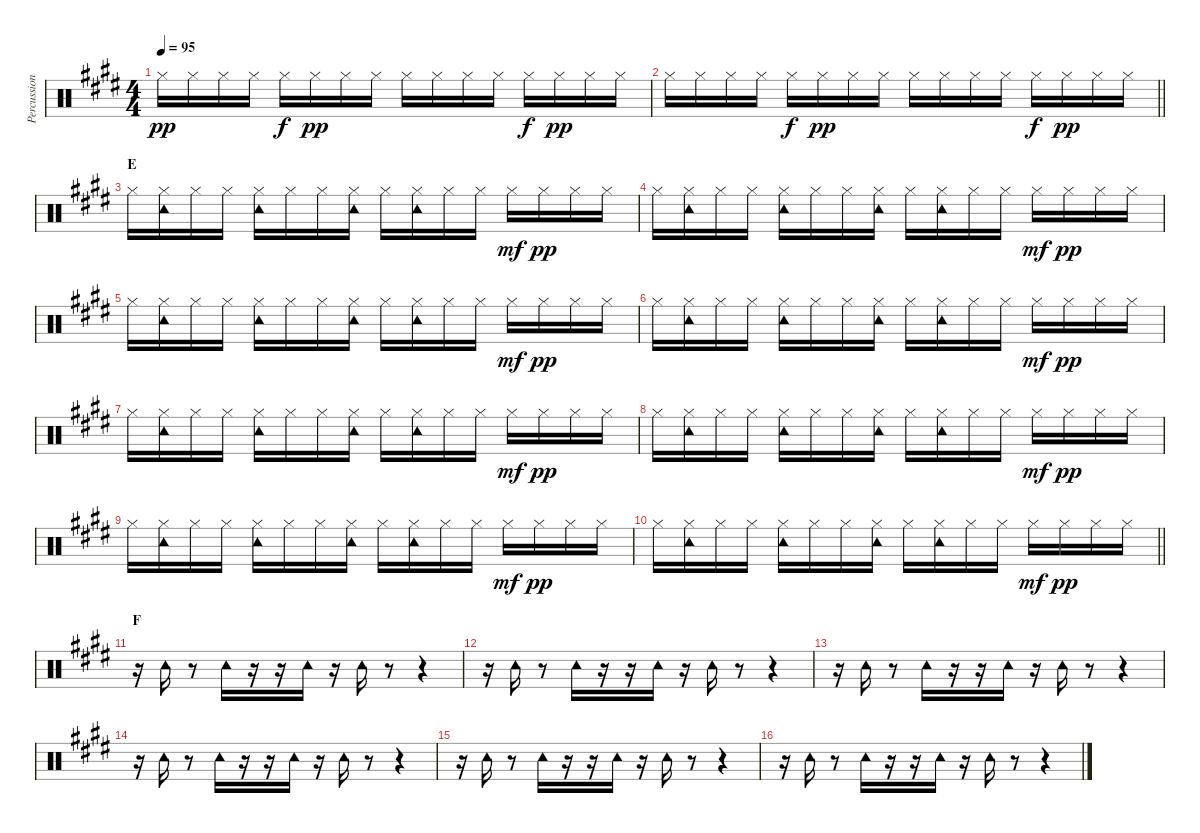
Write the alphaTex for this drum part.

\track ("Percussion" "Percussion") {instrument percussion}
\staff {score}
\articulation defaults
\ts (4 4)
\tempo 95
\clef neutral
\ks e "Hi-Hat (closed)".16{dy pp} "Hi-Hat (closed)".16 "Hi-Hat (closed)".16 "Hi-Hat (closed)".16 "Hi-Hat (closed)".16{dy f} "Hi-Hat (closed)".16{dy pp} "Hi-Hat (closed)".16 "Hi-Hat (closed)".16 "Hi-Hat (closed)".16 "Hi-Hat (closed)".16 "Hi-Hat (closed)".16 "Hi-Hat (closed)".16 "Hi-Hat (closed)".16{dy f} "Hi-Hat (closed)".16{dy pp} "Hi-Hat (closed)".16 "Hi-Hat (closed)".16
|
\barLineRight lightlight "Hi-Hat (closed)".16 "Hi-Hat (closed)".16 "Hi-Hat (closed)".16 "Hi-Hat (closed)".16 "Hi-Hat (closed)".16{dy f} "Hi-Hat (closed)".16{dy pp} "Hi-Hat (closed)".16 "Hi-Hat (closed)".16 "Hi-Hat (closed)".16 "Hi-Hat (closed)".16 "Hi-Hat (closed)".16 "Hi-Hat (closed)".16 "Hi-Hat (closed)".16{dy f} "Hi-Hat (closed)".16{dy pp} "Hi-Hat (closed)".16 "Hi-Hat (closed)".16
|
\section ("" "E")
"Hi-Hat (closed)".16 ("Hi-Hat (closed)" "Tambourine (hit)").16 "Hi-Hat (closed)".16 "Hi-Hat (closed)".16 ("Hi-Hat (closed)" "Tambourine (hit)").16 "Hi-Hat (closed)".16 "Hi-Hat (closed)".16 ("Hi-Hat (closed)" "Tambourine (hit)").16 "Hi-Hat (closed)".16 ("Hi-Hat (closed)" "Tambourine (hit)").16 "Hi-Hat (closed)".16 "Hi-Hat (closed)".16 "Hi-Hat (closed)".16{dy mf} "Hi-Hat (closed)".16{dy pp} "Hi-Hat (closed)".16 "Hi-Hat (closed)".16 |
"Hi-Hat (closed)".16 ("Hi-Hat (closed)" "Tambourine (hit)").16 "Hi-Hat (closed)".16 "Hi-Hat (closed)".16 ("Hi-Hat (closed)" "Tambourine (hit)").16 "Hi-Hat (closed)".16 "Hi-Hat (closed)".16 ("Hi-Hat (closed)" "Tambourine (hit)").16 "Hi-Hat (closed)".16 ("Hi-Hat (closed)" "Tambourine (hit)").16 "Hi-Hat (closed)".16 "Hi-Hat (closed)".16 "Hi-Hat (closed)".16{dy mf} "Hi-Hat (closed)".16{dy pp} "Hi-Hat (closed)".16 "Hi-Hat (closed)".16 |
"Hi-Hat (closed)".16 ("Hi-Hat (closed)" "Tambourine (hit)").16 "Hi-Hat (closed)".16 "Hi-Hat (closed)".16 ("Hi-Hat (closed)" "Tambourine (hit)").16 "Hi-Hat (closed)".16 "Hi-Hat (closed)".16 ("Hi-Hat (closed)" "Tambourine (hit)").16 "Hi-Hat (closed)".16 ("Hi-Hat (closed)" "Tambourine (hit)").16 "Hi-Hat (closed)".16 "Hi-Hat (closed)".16 "Hi-Hat (closed)".16{dy mf} "Hi-Hat (closed)".16{dy pp} "Hi-Hat (closed)".16 "Hi-Hat (closed)".16 |
"Hi-Hat (closed)".16 ("Hi-Hat (closed)" "Tambourine (hit)").16 "Hi-Hat (closed)".16 "Hi-Hat (closed)".16 ("Hi-Hat (closed)" "Tambourine (hit)").16 "Hi-Hat (closed)".16 "Hi-Hat (closed)".16 ("Hi-Hat (closed)" "Tambourine (hit)").16 "Hi-Hat (closed)".16 ("Hi-Hat (closed)" "Tambourine (hit)").16 "Hi-Hat (closed)".16 "Hi-Hat (closed)".16 "Hi-Hat (closed)".16{dy mf} "Hi-Hat (closed)".16{dy pp} "Hi-Hat (closed)".16 "Hi-Hat (closed)".16 |
"Hi-Hat (closed)".16 ("Hi-Hat (closed)" "Tambourine (hit)").16 "Hi-Hat (closed)".16 "Hi-Hat (closed)".16 ("Hi-Hat (closed)" "Tambourine (hit)").16 "Hi-Hat (closed)".16 "Hi-Hat (closed)".16 ("Hi-Hat (closed)" "Tambourine (hit)").16 "Hi-Hat (closed)".16 ("Hi-Hat (closed)" "Tambourine (hit)").16 "Hi-Hat (closed)".16 "Hi-Hat (closed)".16 "Hi-Hat (closed)".16{dy mf} "Hi-Hat (closed)".16{dy pp} "Hi-Hat (closed)".16 "Hi-Hat (closed)".16 |
"Hi-Hat (closed)".16 ("Hi-Hat (closed)" "Tambourine (hit)").16 "Hi-Hat (closed)".16 "Hi-Hat (closed)".16 ("Hi-Hat (closed)" "Tambourine (hit)").16 "Hi-Hat (closed)".16 "Hi-Hat (closed)".16 ("Hi-Hat (closed)" "Tambourine (hit)").16 "Hi-Hat (closed)".16 ("Hi-Hat (closed)" "Tambourine (hit)").16 "Hi-Hat (closed)".16 "Hi-Hat (closed)".16 "Hi-Hat (closed)".16{dy mf} "Hi-Hat (closed)".16{dy pp} "Hi-Hat (closed)".16 "Hi-Hat (closed)".16 |
"Hi-Hat (closed)".16 ("Hi-Hat (closed)" "Tambourine (hit)").16 "Hi-Hat (closed)".16 "Hi-Hat (closed)".16 ("Hi-Hat (closed)" "Tambourine (hit)").16 "Hi-Hat (closed)".16 "Hi-Hat (closed)".16 ("Hi-Hat (closed)" "Tambourine (hit)").16 "Hi-Hat (closed)".16 ("Hi-Hat (closed)" "Tambourine (hit)").16 "Hi-Hat (closed)".16 "Hi-Hat (closed)".16 "Hi-Hat (closed)".16{dy mf} "Hi-Hat (closed)".16{dy pp} "Hi-Hat (closed)".16 "Hi-Hat (closed)".16 |
\barLineRight lightlight "Hi-Hat (closed)".16
("Hi-Hat (closed)" "Tambourine (hit)").16 "Hi-Hat (closed)".16 "Hi-Hat (closed)".16 ("Hi-Hat (closed)" "Tambourine (hit)").16 "Hi-Hat (closed)".16 "Hi-Hat (closed)".16 ("Hi-Hat (closed)" "Tambourine (hit)").16 "Hi-Hat (closed)".16 ("Hi-Hat (closed)" "Tambourine (hit)").16 "Hi-Hat (closed)".16 "Hi-Hat (closed)".16 "Hi-Hat (closed)".16{dy mf} "Hi-Hat (closed)".16{dy pp} "Hi-Hat (closed)".16 "Hi-Hat (closed)".16 |
\section ("" "F")
r.16 "Tambourine (hit)".16 r.8 "Tambourine (hit)".16 r.16 r.16 "Tambourine (hit)".16 r.16 "Tambourine (hit)".16 r.8 r.4 |
r.16 "Tambourine (hit)".16 r.8 "Tambourine (hit)".16 r.16 r.16 "Tambourine (hit)".16 r.16 "Tambourine (hit)".16 r.8 r.4 |
r.16 "Tambourine (hit)".16 r.8 "Tambourine (hit)".16 r.16 r.16 "Tambourine (hit)".16 r.16 "Tambourine (hit)".16 r.8 r.4 |
r.16 "Tambourine (hit)".16 r.8 "Tambourine (hit)".16 r.16 r.16 "Tambourine (hit)".16 r.16 "Tambourine (hit)".16 r.8 r.4 |
r.16 "Tambourine (hit)".16 r.8 "Tambourine (hit)".16 r.16 r.16 "Tambourine (hit)".16 r.16 "Tambourine (hit)".16 r.8 r.4 |
r.16 "Tambourine (hit)".16 r.8 "Tambourine (hit)".16 r.16 r.16 "Tambourine (hit)".16 r.16 "Tambourine (hit)".16 r.8 r.4
